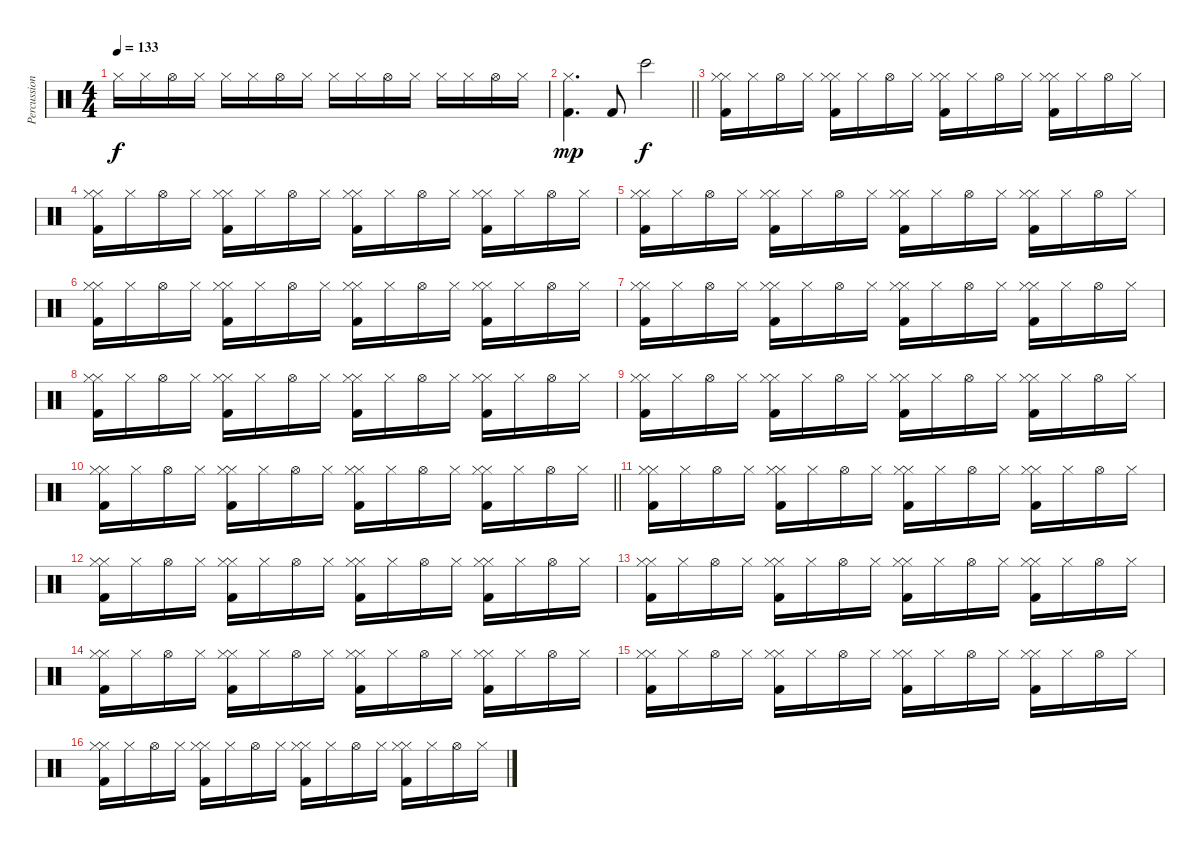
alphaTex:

\track ("Percussioni" "Percussion") {instrument percussion}
\staff {score}
\articulation defaults
\ts (4 4)
\tempo 133
\clef neutral
\ks c "Hi-Hat (closed)".16{dy f} "Hi-Hat (closed)".16 "Hi-Hat (open)".16 "Hi-Hat (closed)".16 "Hi-Hat (closed)".16 "Hi-Hat (closed)".16 "Hi-Hat (open)".16 "Hi-Hat (closed)".16 "Hi-Hat (closed)".16 "Hi-Hat (closed)".16 "Hi-Hat (open)".16 "Hi-Hat (closed)".16 "Hi-Hat (closed)".16 "Hi-Hat (closed)".16 "Hi-Hat (open)".16 "Hi-Hat (closed)".16
|
\barLineRight lightlight
("Kick (hit) 2" "Hi-Hat (closed)").4{d dy mp} "Kick (hit) 2".8 "Bongo High (hit)".2{dy f} |
("Hi-Hat (closed)" "Kick (hit) 2" "Hi-Hat (closed)").16 "Hi-Hat (closed)".16 "Hi-Hat (open)".16 "Hi-Hat (closed)".16 ("Hi-Hat (closed)" "Kick (hit) 2" "Hi-Hat (closed)").16 "Hi-Hat (closed)".16 "Hi-Hat (open)".16 "Hi-Hat (closed)".16 ("Hi-Hat (closed)" "Kick (hit) 2" "Hi-Hat (closed)").16 "Hi-Hat (closed)".16 "Hi-Hat (open)".16 "Hi-Hat (closed)".16 ("Hi-Hat (closed)" "Kick (hit) 2" "Hi-Hat (closed)").16 "Hi-Hat (closed)".16 "Hi-Hat (open)".16 "Hi-Hat (closed)".16 |
("Hi-Hat (closed)" "Kick (hit) 2" "Hi-Hat (closed)").16 "Hi-Hat (closed)".16 "Hi-Hat (open)".16 "Hi-Hat (closed)".16 ("Hi-Hat (closed)" "Kick (hit) 2" "Hi-Hat (closed)").16 "Hi-Hat (closed)".16 "Hi-Hat (open)".16 "Hi-Hat (closed)".16 ("Hi-Hat (closed)" "Kick (hit) 2" "Hi-Hat (closed)").16 "Hi-Hat (closed)".16 "Hi-Hat (open)".16 "Hi-Hat (closed)".16 ("Hi-Hat (closed)" "Kick (hit) 2" "Hi-Hat (closed)").16 "Hi-Hat (closed)".16 "Hi-Hat (open)".16 "Hi-Hat (closed)".16 |
("Hi-Hat (closed)" "Kick (hit) 2" "Hi-Hat (closed)").16 "Hi-Hat (closed)".16 "Hi-Hat (open)".16 "Hi-Hat (closed)".16 ("Hi-Hat (closed)" "Kick (hit) 2" "Hi-Hat (closed)").16 "Hi-Hat (closed)".16 "Hi-Hat (open)".16 "Hi-Hat (closed)".16 ("Hi-Hat (closed)" "Kick (hit) 2" "Hi-Hat (closed)").16 "Hi-Hat (closed)".16 "Hi-Hat (open)".16 "Hi-Hat (closed)".16 ("Hi-Hat (closed)" "Kick (hit) 2" "Hi-Hat (closed)").16 "Hi-Hat (closed)".16 "Hi-Hat (open)".16 "Hi-Hat (closed)".16 |
("Hi-Hat (closed)" "Kick (hit) 2" "Hi-Hat (closed)").16 "Hi-Hat (closed)".16 "Hi-Hat (open)".16 "Hi-Hat (closed)".16 ("Hi-Hat (closed)" "Kick (hit) 2" "Hi-Hat (closed)").16 "Hi-Hat (closed)".16 "Hi-Hat (open)".16 "Hi-Hat (closed)".16 ("Hi-Hat (closed)" "Kick (hit) 2" "Hi-Hat (closed)").16 "Hi-Hat (closed)".16 "Hi-Hat (open)".16 "Hi-Hat (closed)".16 ("Hi-Hat (closed)" "Kick (hit) 2" "Hi-Hat (closed)").16 "Hi-Hat (closed)".16 "Hi-Hat (open)".16 "Hi-Hat (closed)".16 |
("Hi-Hat (closed)" "Kick (hit) 2" "Hi-Hat (closed)").16 "Hi-Hat (closed)".16 "Hi-Hat (open)".16 "Hi-Hat (closed)".16 ("Hi-Hat (closed)" "Kick (hit) 2" "Hi-Hat (closed)").16 "Hi-Hat (closed)".16 "Hi-Hat (open)".16 "Hi-Hat (closed)".16 ("Hi-Hat (closed)" "Kick (hit) 2" "Hi-Hat (closed)").16 "Hi-Hat (closed)".16 "Hi-Hat (open)".16 "Hi-Hat (closed)".16 ("Hi-Hat (closed)" "Kick (hit) 2" "Hi-Hat (closed)").16 "Hi-Hat (closed)".16 "Hi-Hat (open)".16 "Hi-Hat (closed)".16 |
("Hi-Hat (closed)" "Kick (hit) 2" "Hi-Hat (closed)").16 "Hi-Hat (closed)".16 "Hi-Hat (open)".16 "Hi-Hat (closed)".16 ("Hi-Hat (closed)" "Kick (hit) 2" "Hi-Hat (closed)").16 "Hi-Hat (closed)".16 "Hi-Hat (open)".16 "Hi-Hat (closed)".16 ("Hi-Hat (closed)" "Kick (hit) 2" "Hi-Hat (closed)").16 "Hi-Hat (closed)".16 "Hi-Hat (open)".16 "Hi-Hat (closed)".16 ("Hi-Hat (closed)" "Kick (hit) 2" "Hi-Hat (closed)").16 "Hi-Hat (closed)".16 "Hi-Hat (open)".16 "Hi-Hat (closed)".16 |
("Hi-Hat (closed)" "Kick (hit) 2" "Hi-Hat (closed)").16 "Hi-Hat (closed)".16 "Hi-Hat (open)".16 "Hi-Hat (closed)".16 ("Hi-Hat (closed)" "Kick (hit) 2" "Hi-Hat (closed)").16 "Hi-Hat (closed)".16 "Hi-Hat (open)".16 "Hi-Hat (closed)".16 ("Hi-Hat (closed)" "Kick (hit) 2" "Hi-Hat (closed)").16 "Hi-Hat (closed)".16 "Hi-Hat (open)".16 "Hi-Hat (closed)".16 ("Hi-Hat (closed)" "Kick (hit) 2" "Hi-Hat (closed)").16 "Hi-Hat (closed)".16 "Hi-Hat (open)".16 "Hi-Hat (closed)".16 |
\barLineRight lightlight
("Hi-Hat (closed)" "Kick (hit) 2" "Hi-Hat (closed)").16 "Hi-Hat (closed)".16 "Hi-Hat (open)".16 "Hi-Hat (closed)".16 ("Hi-Hat (closed)" "Kick (hit) 2" "Hi-Hat (closed)").16 "Hi-Hat (closed)".16 "Hi-Hat (open)".16 "Hi-Hat (closed)".16 ("Hi-Hat (closed)" "Kick (hit) 2" "Hi-Hat (closed)").16 "Hi-Hat (closed)".16 "Hi-Hat (open)".16 "Hi-Hat (closed)".16 ("Hi-Hat (closed)" "Kick (hit) 2" "Hi-Hat (closed)").16 "Hi-Hat (closed)".16 "Hi-Hat (open)".16 "Hi-Hat (closed)".16 |
("Hi-Hat (closed)" "Kick (hit) 2" "Hi-Hat (closed)").16 "Hi-Hat (closed)".16 "Hi-Hat (open)".16 "Hi-Hat (closed)".16 ("Hi-Hat (closed)" "Kick (hit) 2" "Hi-Hat (closed)").16 "Hi-Hat (closed)".16 "Hi-Hat (open)".16 "Hi-Hat (closed)".16 ("Hi-Hat (closed)" "Kick (hit) 2" "Hi-Hat (closed)").16 "Hi-Hat (closed)".16 "Hi-Hat (open)".16 "Hi-Hat (closed)".16 ("Hi-Hat (closed)" "Kick (hit) 2" "Hi-Hat (closed)").16 "Hi-Hat (closed)".16 "Hi-Hat (open)".16 "Hi-Hat (closed)".16 |
("Hi-Hat (closed)" "Kick (hit) 2" "Hi-Hat (closed)").16 "Hi-Hat (closed)".16 "Hi-Hat (open)".16 "Hi-Hat (closed)".16 ("Hi-Hat (closed)" "Kick (hit) 2" "Hi-Hat (closed)").16 "Hi-Hat (closed)".16 "Hi-Hat (open)".16 "Hi-Hat (closed)".16 ("Hi-Hat (closed)" "Kick (hit) 2" "Hi-Hat (closed)").16 "Hi-Hat (closed)".16 "Hi-Hat (open)".16 "Hi-Hat (closed)".16 ("Hi-Hat (closed)" "Kick (hit) 2" "Hi-Hat (closed)").16 "Hi-Hat (closed)".16 "Hi-Hat (open)".16 "Hi-Hat (closed)".16 |
("Hi-Hat (closed)" "Kick (hit) 2" "Hi-Hat (closed)").16 "Hi-Hat (closed)".16 "Hi-Hat (open)".16 "Hi-Hat (closed)".16 ("Hi-Hat (closed)" "Kick (hit) 2" "Hi-Hat (closed)").16 "Hi-Hat (closed)".16 "Hi-Hat (open)".16 "Hi-Hat (closed)".16 ("Hi-Hat (closed)" "Kick (hit) 2" "Hi-Hat (closed)").16 "Hi-Hat (closed)".16 "Hi-Hat (open)".16 "Hi-Hat (closed)".16 ("Hi-Hat (closed)" "Kick (hit) 2" "Hi-Hat (closed)").16 "Hi-Hat (closed)".16 "Hi-Hat (open)".16 "Hi-Hat (closed)".16 |
("Hi-Hat (closed)" "Kick (hit) 2" "Hi-Hat (closed)").16 "Hi-Hat (closed)".16 "Hi-Hat (open)".16 "Hi-Hat (closed)".16 ("Hi-Hat (closed)" "Kick (hit) 2" "Hi-Hat (closed)").16 "Hi-Hat (closed)".16 "Hi-Hat (open)".16 "Hi-Hat (closed)".16 ("Hi-Hat (closed)" "Kick (hit) 2" "Hi-Hat (closed)").16 "Hi-Hat (closed)".16 "Hi-Hat (open)".16 "Hi-Hat (closed)".16 ("Hi-Hat (closed)" "Kick (hit) 2" "Hi-Hat (closed)").16 "Hi-Hat (closed)".16 "Hi-Hat (open)".16 "Hi-Hat (closed)".16 |
("Hi-Hat (closed)" "Kick (hit) 2" "Hi-Hat (closed)").16 "Hi-Hat (closed)".16 "Hi-Hat (open)".16 "Hi-Hat (closed)".16 ("Hi-Hat (closed)" "Kick (hit) 2" "Hi-Hat (closed)").16 "Hi-Hat (closed)".16 "Hi-Hat (open)".16 "Hi-Hat (closed)".16 ("Hi-Hat (closed)" "Kick (hit) 2" "Hi-Hat (closed)").16 "Hi-Hat (closed)".16 "Hi-Hat (open)".16 "Hi-Hat (closed)".16 ("Hi-Hat (closed)" "Kick (hit) 2" "Hi-Hat (closed)").16 "Hi-Hat (closed)".16 "Hi-Hat (open)".16 "Hi-Hat (closed)".16 |
("Hi-Hat (closed)" "Kick (hit) 2" "Hi-Hat (closed)").16 "Hi-Hat (closed)".16 "Hi-Hat (open)".16 "Hi-Hat (closed)".16 ("Hi-Hat (closed)" "Kick (hit) 2" "Hi-Hat (closed)").16 "Hi-Hat (closed)".16 "Hi-Hat (open)".16 "Hi-Hat (closed)".16 ("Hi-Hat (closed)" "Kick (hit) 2" "Hi-Hat (closed)").16 "Hi-Hat (closed)".16 "Hi-Hat (open)".16 "Hi-Hat (closed)".16 ("Hi-Hat (closed)" "Kick (hit) 2" "Hi-Hat (closed)").16 "Hi-Hat (closed)".16 "Hi-Hat (open)".16 "Hi-Hat (closed)".16
